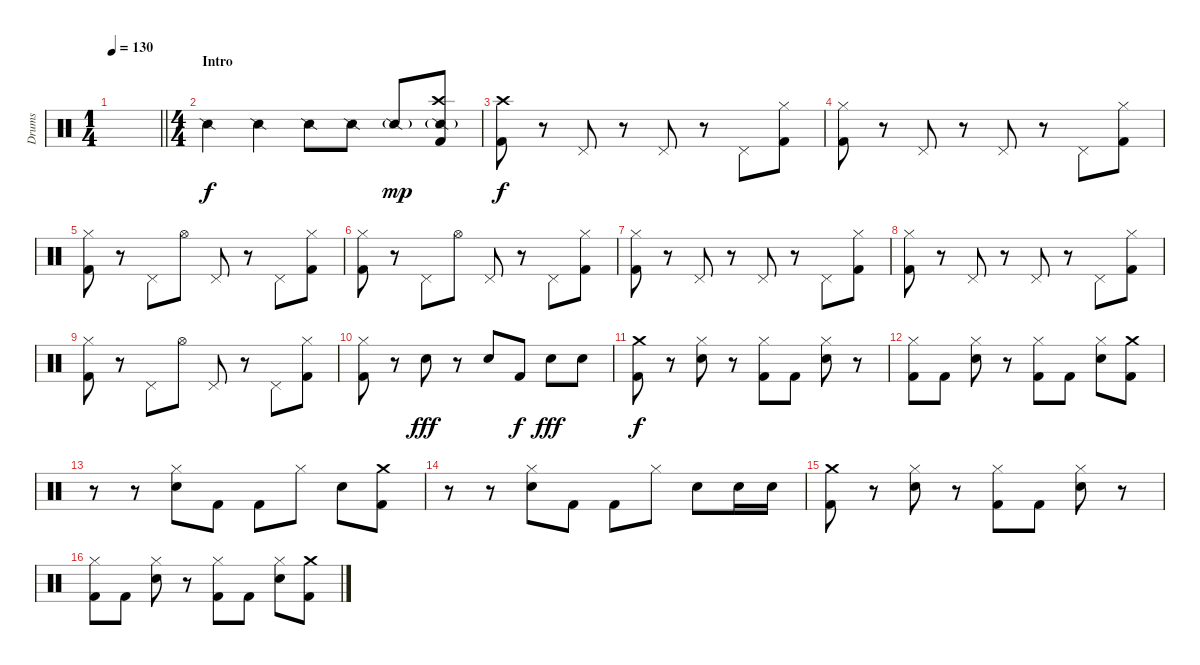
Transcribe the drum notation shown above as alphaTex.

\track ("Drums" "Drums") {instrument percussion}
\staff {score}
\articulation defaults
\ts (1 4)
\tempo 130
\clef neutral
\barLineRight lightlight
\ks c
|
\ts (4 4)
\section ("" "Intro")
"Snare (side stick) 2".4 "Snare (side stick) 2".4 "Snare (side stick) 2".8 "Snare (side stick) 2".8 "Snare (side stick) 2"{g}.8{dy mp} ("Snare (side stick) 2"{g} "Crash high (hit)" "Kick (hit) 2").8 |
("Crash high (hit)" "Kick (hit) 2").8{dy f} r.8 "Pedal Hi-Hat (hit)".8 r.8 "Pedal Hi-Hat (hit)".8 r.8 "Pedal Hi-Hat (hit)".8 ("Hi-Hat (closed)" "Kick (hit) 2").8 |
("Hi-Hat (closed)" "Kick (hit) 2").8 r.8 "Pedal Hi-Hat (hit)".8 r.8 "Pedal Hi-Hat (hit)".8 r.8 "Pedal Hi-Hat (hit)".8 ("Hi-Hat (closed)" "Kick (hit) 2").8 |
("Hi-Hat (closed)" "Kick (hit) 2").8 r.8 "Pedal Hi-Hat (hit)".8 "Hi-Hat (open)".8 "Pedal Hi-Hat (hit)".8 r.8 "Pedal Hi-Hat (hit)".8 ("Hi-Hat (closed)" "Kick (hit) 2").8 |
("Hi-Hat (closed)" "Kick (hit) 2").8 r.8 "Pedal Hi-Hat (hit)".8 "Hi-Hat (open)".8 "Pedal Hi-Hat (hit)".8 r.8 "Pedal Hi-Hat (hit)".8 ("Hi-Hat (closed)" "Kick (hit) 2").8 |
("Hi-Hat (closed)" "Kick (hit) 2").8 r.8 "Pedal Hi-Hat (hit)".8 r.8 "Pedal Hi-Hat (hit)".8 r.8 "Pedal Hi-Hat (hit)".8 ("Hi-Hat (closed)" "Kick (hit) 2").8 |
("Hi-Hat (closed)" "Kick (hit) 2").8 r.8 "Pedal Hi-Hat (hit)".8 r.8 "Pedal Hi-Hat (hit)".8 r.8 "Pedal Hi-Hat (hit)".8 ("Hi-Hat (closed)" "Kick (hit) 2").8 |
("Hi-Hat (closed)" "Kick (hit) 2").8 r.8 "Pedal Hi-Hat (hit)".8 "Hi-Hat (open)".8 "Pedal Hi-Hat (hit)".8 r.8 "Pedal Hi-Hat (hit)".8 ("Hi-Hat (closed)" "Kick (hit) 2").8 |
("Hi-Hat (closed)" "Kick (hit) 2").8 r.8 "Snare (hit) 2".8{dy fff} r.8 "Snare (hit) 2".8 "Kick (hit) 2".8{dy f} "Snare (hit) 2".8{dy fff} "Snare (hit) 2".8 |
("Crash medium (hit)" "Kick (hit) 2").8{dy f} r.8 ("Hi-Hat (closed)" "Snare (hit) 2").8 r.8 ("Hi-Hat (closed)" "Kick (hit) 2").8 "Kick (hit) 2".8 ("Hi-Hat (closed)" "Snare (hit) 2").8 r.8 |
("Hi-Hat (closed)" "Kick (hit) 2").8 "Kick (hit) 2".8 ("Hi-Hat (closed)" "Snare (hit) 2").8 r.8 ("Hi-Hat (closed)" "Kick (hit) 2").8 "Kick (hit) 2".8 ("Hi-Hat (closed)" "Snare (hit) 2").8 ("Crash medium (hit)" "Kick (hit) 2").8 |
r.8 r.8 ("Hi-Hat (closed)" "Snare (hit) 2").8 "Kick (hit) 2".8 "Kick (hit) 2".8 "Hi-Hat (closed)".8 "Snare (hit) 2".8 ("Crash medium (hit)" "Kick (hit) 2").8 |
r.8 r.8 ("Hi-Hat (closed)" "Snare (hit) 2").8 "Kick (hit) 2".8 "Kick (hit) 2".8 "Hi-Hat (closed)".8 "Snare (hit) 2".8 "Snare (hit) 2".16 "Snare (hit) 2".16 |
("Crash medium (hit)" "Kick (hit) 2").8 r.8 ("Hi-Hat (closed)" "Snare (hit) 2").8 r.8 ("Hi-Hat (closed)" "Kick (hit) 2").8 "Kick (hit) 2".8 ("Hi-Hat (closed)" "Snare (hit) 2").8 r.8 |
("Hi-Hat (closed)" "Kick (hit) 2").8 "Kick (hit) 2".8 ("Hi-Hat (closed)" "Snare (hit) 2").8 r.8 ("Hi-Hat (closed)" "Kick (hit) 2").8 "Kick (hit) 2".8 ("Hi-Hat (closed)" "Snare (hit) 2").8 ("Crash medium (hit)" "Kick (hit) 2").8
